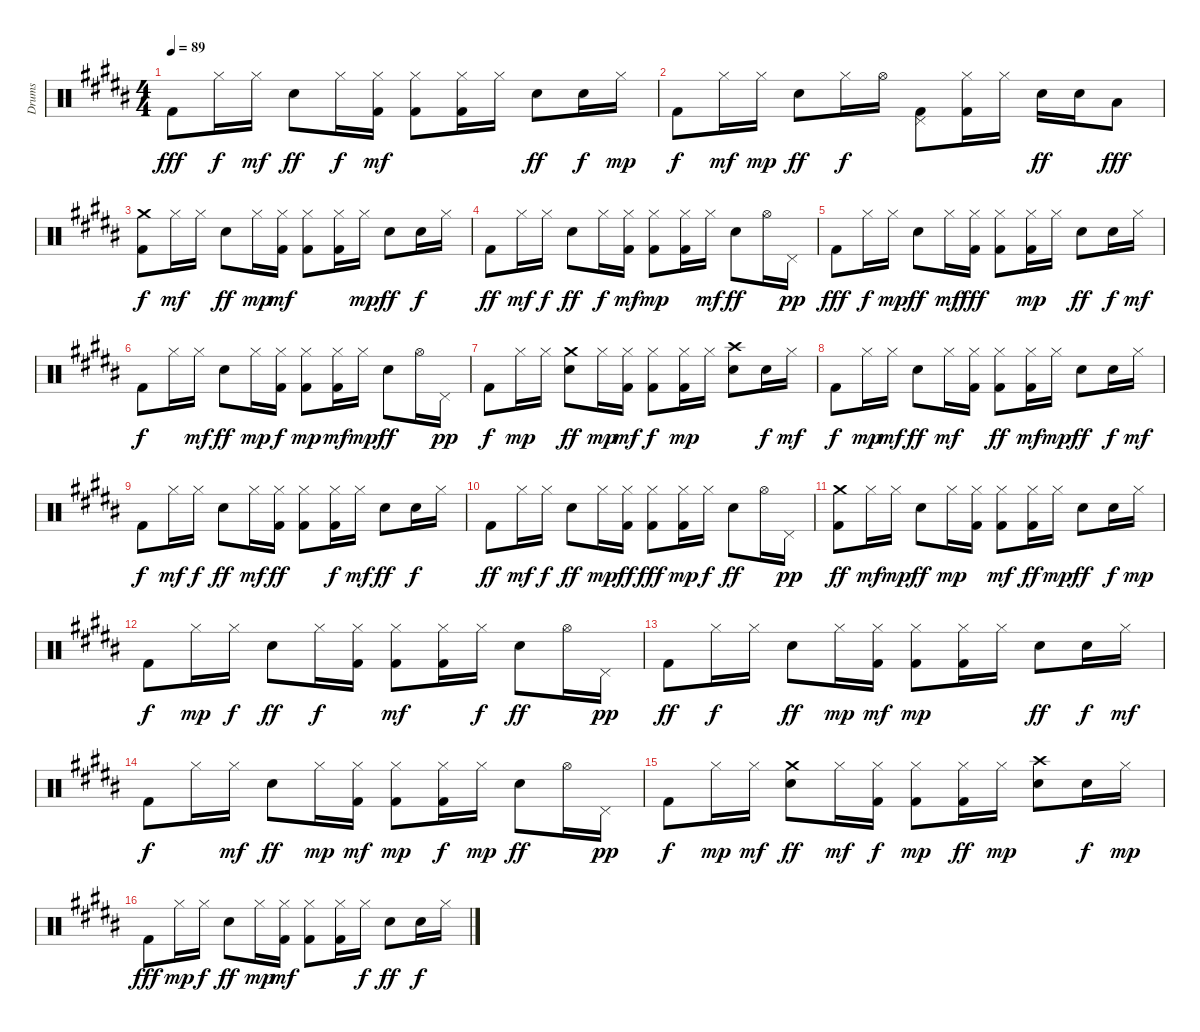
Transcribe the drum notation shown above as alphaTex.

\track ("Drums" "Drums") {instrument percussion}
\staff {score}
\articulation defaults
\ts (4 4)
\tempo 89
\clef neutral
\ks b "Kick (hit) 2".8{dy fff} "Hi-Hat (closed)".16{dy f} "Hi-Hat (closed)".16{dy mf} "Electric Snare (hit)".8{dy ff} "Hi-Hat (closed)".16{dy f}
("Kick (hit) 2" "Hi-Hat (closed)").16{dy mf} ("Kick (hit) 2" "Hi-Hat (closed)").8 ("Kick (hit) 2" "Hi-Hat (closed)").16 "Hi-Hat (closed)".16 "Electric Snare (hit)".8{dy ff} "Hand Clap (hit)".16{dy f} "Hi-Hat (closed)".16{dy mp} |
"Kick (hit) 2".8{dy f} "Hi-Hat (closed)".16{dy mf} "Hi-Hat (closed)".16{dy mp} "Electric Snare (hit)".8{dy ff} "Hi-Hat (closed)".16{dy f} "Hi-Hat (open)".16 ("Kick (hit) 2" "Pedal Hi-Hat (hit)").8 ("Kick (hit) 2" "Hi-Hat (closed)").16 "Hi-Hat (closed)".16 "Electric Snare (hit)".16{dy ff} "Electric Snare (hit)".16 "Low Tom (hit)".8{dy fff} |
("Kick (hit) 2" "Crash medium (hit)").8{dy f} "Hi-Hat (closed)".16{dy mf} "Hi-Hat (closed)".16 "Electric Snare (hit)".8{dy ff} "Hi-Hat (closed)".16{dy mp} ("Kick (hit) 2" "Hi-Hat (closed)").16{dy mf} ("Kick (hit) 2" "Hi-Hat (closed)").8 ("Kick (hit) 2" "Hi-Hat (closed)").16 "Hi-Hat (closed)".16{dy mp} "Electric Snare (hit)".8{dy ff} "Hand Clap (hit)".16{dy f} "Hi-Hat (closed)".16 |
"Kick (hit) 2".8{dy ff} "Hi-Hat (closed)".16{dy mf} "Hi-Hat (closed)".16{dy f} "Electric Snare (hit)".8{dy ff} "Hi-Hat (closed)".16{dy f} ("Kick (hit) 2" "Hi-Hat (closed)").16{dy mf} ("Kick (hit) 2" "Hi-Hat (closed)").8{dy mp} ("Kick (hit) 2" "Hi-Hat (closed)").16 "Hi-Hat (closed)".16{dy mf} "Electric Snare (hit)".8{dy ff} "Hi-Hat (open)".16 "Pedal Hi-Hat (hit)".16{dy pp} |
"Kick (hit) 2".8{dy fff} "Hi-Hat (closed)".16{dy f} "Hi-Hat (closed)".16{dy mp} "Electric Snare (hit)".8{dy ff} "Hi-Hat (closed)".16{dy mf} ("Kick (hit) 2" "Hi-Hat (closed)").16{dy fff} ("Kick (hit) 2" "Hi-Hat (closed)").8 ("Kick (hit) 2" "Hi-Hat (closed)").16{dy mp} "Hi-Hat (closed)".16 "Electric Snare (hit)".8{dy ff} "Hand Clap (hit)".16{dy f} "Hi-Hat (closed)".16{dy mf} |
"Kick (hit) 2".8{dy f} "Hi-Hat (closed)".16 "Hi-Hat (closed)".16{dy mf} "Electric Snare (hit)".8{dy ff} "Hi-Hat (closed)".16{dy mp} ("Kick (hit) 2" "Hi-Hat (closed)").16{dy f} ("Kick (hit) 2" "Hi-Hat (closed)").8{dy mp} ("Kick (hit) 2" "Hi-Hat (closed)").16{dy mf} "Hi-Hat (closed)".16{dy mp} "Electric Snare (hit)".8{dy ff} "Hi-Hat (open)".16 "Pedal Hi-Hat (hit)".16{dy pp} |
"Kick (hit) 2".8{dy f} "Hi-Hat (closed)".16{dy mp} "Hi-Hat (closed)".16 ("Electric Snare (hit)" "Crash medium (hit)").8{dy ff} "Hi-Hat (closed)".16{dy mp} ("Kick (hit) 2" "Hi-Hat (closed)").16{dy mf} ("Kick (hit) 2" "Hi-Hat (closed)").8{dy f} ("Kick (hit) 2" "Hi-Hat (closed)").16{dy mp} "Hi-Hat (closed)".16 ("Electric Snare (hit)" "Crash high (hit)").8 "Hand Clap (hit)".16{dy f} "Hi-Hat (closed)".16{dy mf} |
"Kick (hit) 2".8{dy f} "Hi-Hat (closed)".16{dy mp} "Hi-Hat (closed)".16{dy mf} "Electric Snare (hit)".8{dy ff} "Hi-Hat (closed)".16{dy mf} ("Kick (hit) 2" "Hi-Hat (closed)").16 ("Kick (hit) 2" "Hi-Hat (closed)").8{dy ff} ("Kick (hit) 2" "Hi-Hat (closed)").16{dy mf} "Hi-Hat (closed)".16{dy mp} "Electric Snare (hit)".8{dy ff} "Hand Clap (hit)".16{dy f} "Hi-Hat (closed)".16{dy mf} |
"Kick (hit) 2".8{dy f} "Hi-Hat (closed)".16{dy mf} "Hi-Hat (closed)".16{dy f} "Electric Snare (hit)".8{dy ff} "Hi-Hat (closed)".16{dy mf} ("Kick (hit) 2" "Hi-Hat (closed)").16{dy ff} ("Kick (hit) 2" "Hi-Hat (closed)").8 ("Kick (hit) 2" "Hi-Hat (closed)").16{dy f} "Hi-Hat (closed)".16{dy mf} "Electric Snare (hit)".8{dy ff} "Hand Clap (hit)".16{dy f} "Hi-Hat (closed)".16 |
"Kick (hit) 2".8{dy ff} "Hi-Hat (closed)".16{dy mf} "Hi-Hat (closed)".16{dy f} "Electric Snare (hit)".8{dy ff} "Hi-Hat (closed)".16{dy mp} ("Kick (hit) 2" "Hi-Hat (closed)").16{dy ff} ("Kick (hit) 2" "Hi-Hat (closed)").8{dy fff} ("Kick (hit) 2" "Hi-Hat (closed)").16{dy mp} "Hi-Hat (closed)".16{dy f} "Electric Snare (hit)".8{dy ff} "Hi-Hat (open)".16 "Pedal Hi-Hat (hit)".16{dy pp} |
("Kick (hit) 2" "Crash medium (hit)").8{dy ff} "Hi-Hat (closed)".16{dy mf} "Hi-Hat (closed)".16{dy mp} "Electric Snare (hit)".8{dy ff} "Hi-Hat (closed)".16{dy mp} ("Kick (hit) 2" "Hi-Hat (closed)").16 ("Kick (hit) 2" "Hi-Hat (closed)").8{dy mf} ("Kick (hit) 2" "Hi-Hat (closed)").16{dy ff} "Hi-Hat (closed)".16{dy mp} "Electric Snare (hit)".8{dy ff} "Hand Clap (hit)".16{dy f} "Hi-Hat (closed)".16{dy mp} |
"Kick (hit) 2".8{dy f} "Hi-Hat (closed)".16{dy mp} "Hi-Hat (closed)".16{dy f} "Electric Snare (hit)".8{dy ff} "Hi-Hat (closed)".16{dy f} ("Kick (hit) 2" "Hi-Hat (closed)").16 ("Kick (hit) 2" "Hi-Hat (closed)").8{dy mf} ("Kick (hit) 2" "Hi-Hat (closed)").16 "Hi-Hat (closed)".16{dy f} "Electric Snare (hit)".8{dy ff} "Hi-Hat (open)".16 "Pedal Hi-Hat (hit)".16{dy pp} |
"Kick (hit) 2".8{dy ff} "Hi-Hat (closed)".16{dy f} "Hi-Hat (closed)".16 "Electric Snare (hit)".8{dy ff} "Hi-Hat (closed)".16{dy mp} ("Kick (hit) 2" "Hi-Hat (closed)").16{dy mf} ("Kick (hit) 2" "Hi-Hat (closed)").8{dy mp} ("Kick (hit) 2" "Hi-Hat (closed)").16 "Hi-Hat (closed)".16 "Electric Snare (hit)".8{dy ff} "Hand Clap (hit)".16{dy f} "Hi-Hat (closed)".16{dy mf} |
"Kick (hit) 2".8{dy f} "Hi-Hat (closed)".16 "Hi-Hat (closed)".16{dy mf} "Electric Snare (hit)".8{dy ff} "Hi-Hat (closed)".16{dy mp} ("Kick (hit) 2" "Hi-Hat (closed)").16{dy mf} ("Kick (hit) 2" "Hi-Hat (closed)").8{dy mp} ("Kick (hit) 2" "Hi-Hat (closed)").16{dy f} "Hi-Hat (closed)".16{dy mp} "Electric Snare (hit)".8{dy ff} "Hi-Hat (open)".16 "Pedal Hi-Hat (hit)".16{dy pp} |
"Kick (hit) 2".8{dy f} "Hi-Hat (closed)".16{dy mp} "Hi-Hat (closed)".16{dy mf} ("Electric Snare (hit)" "Crash medium (hit)").8{dy ff} "Hi-Hat (closed)".16{dy mf} ("Kick (hit) 2" "Hi-Hat (closed)").16{dy f} ("Kick (hit) 2" "Hi-Hat (closed)").8{dy mp} ("Kick (hit) 2" "Hi-Hat (closed)").16{dy ff} "Hi-Hat (closed)".16{dy mp} ("Electric Snare (hit)" "Crash high (hit)").8 "Hand Clap (hit)".16{dy f} "Hi-Hat (closed)".16{dy mp} |
"Kick (hit) 2".8{dy fff} "Hi-Hat (closed)".16{dy mp} "Hi-Hat (closed)".16{dy f} "Electric Snare (hit)".8{dy ff} "Hi-Hat (closed)".16{dy mp} ("Kick (hit) 2" "Hi-Hat (closed)").16{dy mf} ("Kick (hit) 2" "Hi-Hat (closed)").8 ("Kick (hit) 2" "Hi-Hat (closed)").16 "Hi-Hat (closed)".16{dy f} "Electric Snare (hit)".8{dy ff} "Hand Clap (hit)".16{dy f} "Hi-Hat (closed)".16
